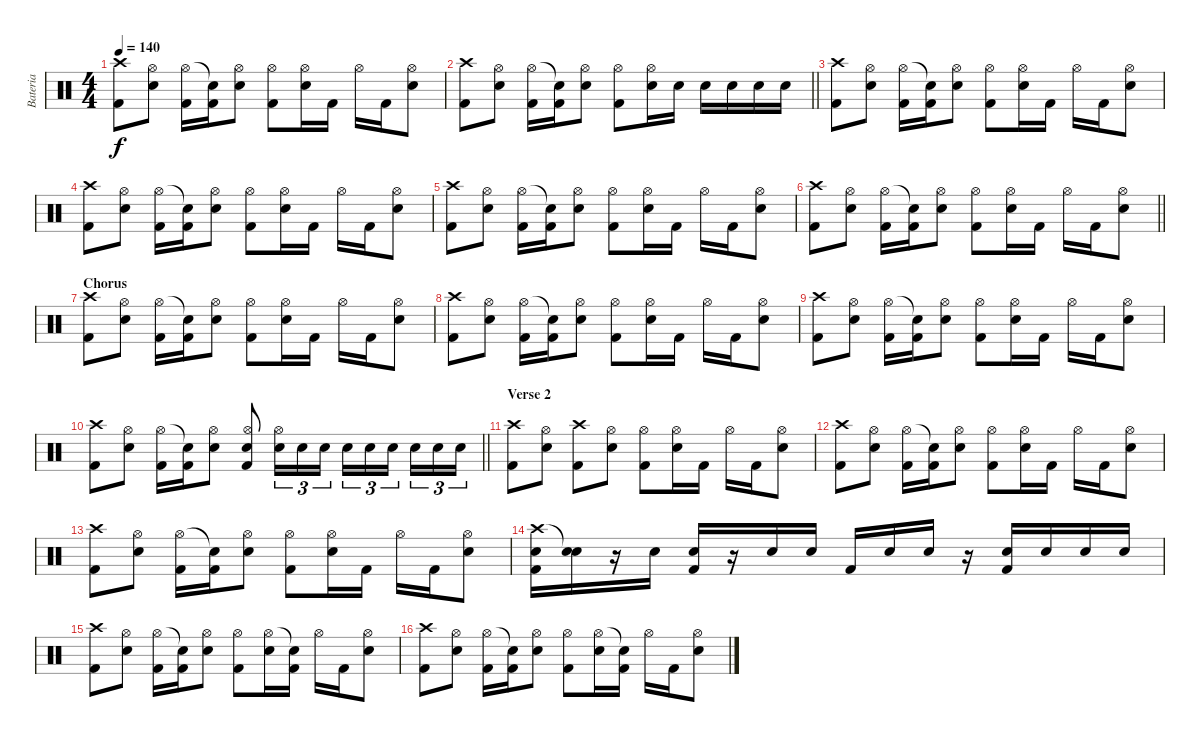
\track ("Bateria" "Bateria") {instrument percussion}
\staff {score}
\articulation defaults
\ts (4 4)
\tempo 140
\clef neutral
\ks c
("Crash high (hit)" "Kick (hit) 2").8{dy f} ("Hi-Hat (open)" "Electric Snare (hit)").8 ("Hi-Hat (open)" "Kick (hit) 2").16 ("Snare (hit)"{t} "Kick (hit) 2").16 ("Hi-Hat (open)" "Electric Snare (hit)").8 ("Hi-Hat (open)" "Kick (hit) 2").8 ("Hi-Hat (open)" "Electric Snare (hit)").16 "Kick (hit) 2".16 "Hi-Hat (open)".16 "Kick (hit) 2".16 ("Hi-Hat (open)" "Electric Snare (hit)").8 |
\barLineRight lightlight
("Crash high (hit)" "Kick (hit) 2").8 ("Hi-Hat (open)" "Electric Snare (hit)").8 ("Hi-Hat (open)" "Kick (hit) 2").16 ("Snare (hit)"{t} "Kick (hit) 2").16 ("Hi-Hat (open)" "Electric Snare (hit)").8 ("Hi-Hat (open)" "Kick (hit) 2").8 ("Hi-Hat (open)" "Electric Snare (hit)").16 "Electric Snare (hit)".16 "Electric Snare (hit)".16 "Electric Snare (hit)".16 "Electric Snare (hit)".16 "Electric Snare (hit)".16 |
("Crash high (hit)" "Kick (hit) 2").8 ("Hi-Hat (open)" "Electric Snare (hit)").8 ("Hi-Hat (open)" "Kick (hit) 2").16 ("Snare (hit)"{t} "Kick (hit) 2").16 ("Hi-Hat (open)" "Electric Snare (hit)").8 ("Hi-Hat (open)" "Kick (hit) 2").8 ("Hi-Hat (open)" "Electric Snare (hit)").16 "Kick (hit) 2".16 "Hi-Hat (open)".16 "Kick (hit) 2".16 ("Hi-Hat (open)" "Electric Snare (hit)").8 |
("Crash high (hit)" "Kick (hit) 2").8 ("Hi-Hat (open)" "Electric Snare (hit)").8 ("Hi-Hat (open)" "Kick (hit) 2").16 ("Snare (hit)"{t} "Kick (hit) 2").16 ("Hi-Hat (open)" "Electric Snare (hit)").8 ("Hi-Hat (open)" "Kick (hit) 2").8 ("Hi-Hat (open)" "Electric Snare (hit)").16 "Kick (hit) 2".16 "Hi-Hat (open)".16 "Kick (hit) 2".16 ("Hi-Hat (open)" "Electric Snare (hit)").8 |
("Crash high (hit)" "Kick (hit) 2").8 ("Hi-Hat (open)" "Electric Snare (hit)").8 ("Hi-Hat (open)" "Kick (hit) 2").16 ("Snare (hit)"{t} "Kick (hit) 2").16 ("Hi-Hat (open)" "Electric Snare (hit)").8 ("Hi-Hat (open)" "Kick (hit) 2").8 ("Hi-Hat (open)" "Electric Snare (hit)").16 "Kick (hit) 2".16 "Hi-Hat (open)".16 "Kick (hit) 2".16 ("Hi-Hat (open)" "Electric Snare (hit)").8 |
\barLineRight lightlight
("Crash high (hit)" "Kick (hit) 2").8 ("Hi-Hat (open)" "Electric Snare (hit)").8 ("Hi-Hat (open)" "Kick (hit) 2").16 ("Snare (hit)"{t} "Kick (hit) 2").16 ("Hi-Hat (open)" "Electric Snare (hit)").8 ("Hi-Hat (open)" "Kick (hit) 2").8 ("Hi-Hat (open)" "Electric Snare (hit)").16 "Kick (hit) 2".16 "Hi-Hat (open)".16 "Kick (hit) 2".16 ("Hi-Hat (open)" "Electric Snare (hit)").8 |
\section ("" "Chorus")
("Crash high (hit)" "Kick (hit) 2").8 ("Hi-Hat (open)" "Electric Snare (hit)").8 ("Hi-Hat (open)" "Kick (hit) 2").16 ("Snare (hit)"{t} "Kick (hit) 2").16 ("Hi-Hat (open)" "Electric Snare (hit)").8 ("Hi-Hat (open)" "Kick (hit) 2").8 ("Hi-Hat (open)" "Electric Snare (hit)").16 "Kick (hit) 2".16 "Hi-Hat (open)".16 "Kick (hit) 2".16 ("Hi-Hat (open)" "Electric Snare (hit)").8 |
("Crash high (hit)" "Kick (hit) 2").8 ("Hi-Hat (open)" "Electric Snare (hit)").8 ("Hi-Hat (open)" "Kick (hit) 2").16 ("Snare (hit)"{t} "Kick (hit) 2").16 ("Hi-Hat (open)" "Electric Snare (hit)").8 ("Hi-Hat (open)" "Kick (hit) 2").8 ("Hi-Hat (open)" "Electric Snare (hit)").16 "Kick (hit) 2".16 "Hi-Hat (open)".16 "Kick (hit) 2".16 ("Hi-Hat (open)" "Electric Snare (hit)").8 |
("Crash high (hit)" "Kick (hit) 2").8 ("Hi-Hat (open)" "Electric Snare (hit)").8 ("Hi-Hat (open)" "Kick (hit) 2").16 ("Snare (hit)"{t} "Kick (hit) 2").16 ("Hi-Hat (open)" "Electric Snare (hit)").8 ("Hi-Hat (open)" "Kick (hit) 2").8 ("Hi-Hat (open)" "Electric Snare (hit)").16 "Kick (hit) 2".16 "Hi-Hat (open)".16 "Kick (hit) 2".16 ("Hi-Hat (open)" "Electric Snare (hit)").8 |
\barLineRight lightlight
("Crash high (hit)" "Kick (hit) 2").8 ("Hi-Hat (open)" "Electric Snare (hit)").8 ("Hi-Hat (open)" "Kick (hit) 2").16 ("Snare (hit)"{t} "Kick (hit) 2").16 ("Hi-Hat (open)" "Electric Snare (hit)").8 ("Hi-Hat (open)" "Electric Snare (hit)" "Kick (hit) 2").8 ("Hi-Hat (open)" "Electric Snare (hit)").16{tu (3 2)} "Electric Snare (hit)".16{tu (3 2)} "Electric Snare (hit)".16{tu (3 2)} "Electric Snare (hit)".16{tu (3 2)} "Electric Snare (hit)".16{tu (3 2)} "Electric Snare (hit)".16{tu (3 2) beam splitsecondary} "Electric Snare (hit)".16{tu (3 2)} "Electric Snare (hit)".16{tu (3 2)} "Electric Snare (hit)".16{tu (3 2)} |
\section ("" "Verse 2")
("Crash high (hit)" "Kick (hit) 2").8 ("Hi-Hat (open)" "Electric Snare (hit)").8 ("Crash high (hit)" "Kick (hit) 2").8 ("Hi-Hat (open)" "Electric Snare (hit)").8 ("Hi-Hat (open)" "Kick (hit) 2").8 ("Hi-Hat (open)" "Electric Snare (hit)").16 "Kick (hit) 2".16 "Hi-Hat (open)".16 "Kick (hit) 2".16 ("Hi-Hat (open)" "Electric Snare (hit)").8 |
("Crash high (hit)" "Kick (hit) 2").8 ("Hi-Hat (open)" "Electric Snare (hit)").8 ("Hi-Hat (open)" "Kick (hit) 2").16 ("Snare (hit)"{t} "Kick (hit) 2").16 ("Hi-Hat (open)" "Electric Snare (hit)").8 ("Hi-Hat (open)" "Kick (hit) 2").8 ("Hi-Hat (open)" "Electric Snare (hit)").16 "Kick (hit) 2".16 "Hi-Hat (open)".16 "Kick (hit) 2".16 ("Hi-Hat (open)" "Electric Snare (hit)").8 |
("Crash high (hit)" "Kick (hit) 2").8 ("Hi-Hat (open)" "Electric Snare (hit)").8 ("Hi-Hat (open)" "Kick (hit) 2").16 ("Snare (hit)"{t} "Kick (hit) 2").16 ("Hi-Hat (open)" "Electric Snare (hit)").8 ("Hi-Hat (open)" "Kick (hit) 2").8 ("Hi-Hat (open)" "Electric Snare (hit)").16 "Kick (hit) 2".16 "Hi-Hat (open)".16 "Kick (hit) 2".16 ("Hi-Hat (open)" "Electric Snare (hit)").8 |
("Crash high (hit)" "Electric Snare (hit)" "Kick (hit) 2").16 ("Snare (hit)"{t} "Electric Snare (hit)").16 r.16 "Electric Snare (hit)".16 ("Electric Snare (hit)" "Kick (hit) 2").16 r.16 "Electric Snare (hit)".16 "Electric Snare (hit)".16 "Kick (hit) 2".16 "Electric Snare (hit)".16 "Electric Snare (hit)".16 r.16 ("Electric Snare (hit)" "Kick (hit) 2").16 "Electric Snare (hit)".16 "Electric Snare (hit)".16 "Electric Snare (hit)".16 |
("Crash high (hit)" "Kick (hit) 2").8 ("Hi-Hat (open)" "Electric Snare (hit)").8 ("Hi-Hat (open)" "Kick (hit) 2").16 ("Snare (hit)"{t} "Kick (hit) 2").16 ("Hi-Hat (open)" "Electric Snare (hit)").8 ("Hi-Hat (open)" "Kick (hit) 2").8 ("Hi-Hat (open)" "Electric Snare (hit)").16 ("Snare (hit)"{t} "Kick (hit) 2").16 "Hi-Hat (open)".16 "Kick (hit) 2".16 ("Hi-Hat (open)" "Electric Snare (hit)").8 |
("Crash high (hit)" "Kick (hit) 2").8 ("Hi-Hat (open)" "Electric Snare (hit)").8 ("Hi-Hat (open)" "Kick (hit) 2").16 ("Snare (hit)"{t} "Kick (hit) 2").16 ("Hi-Hat (open)" "Electric Snare (hit)").8 ("Hi-Hat (open)" "Kick (hit) 2").8 ("Hi-Hat (open)" "Electric Snare (hit)").16 ("Snare (hit)"{t} "Kick (hit) 2").16 "Hi-Hat (open)".16 "Kick (hit) 2".16 ("Hi-Hat (open)" "Electric Snare (hit)").8
